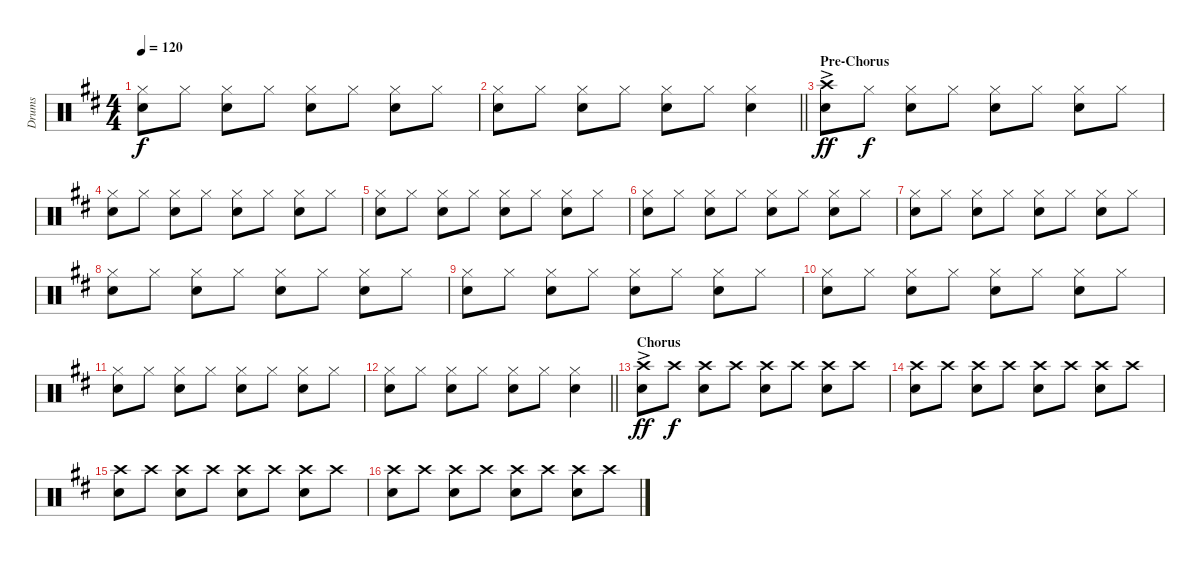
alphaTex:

\track ("Drums" "Drums") {instrument percussion}
\staff {score}
\articulation defaults
\ts (4 4)
\tempo 120
\clef neutral
\ks d
("Hi-Hat (closed)" "Snare (hit) 2").8{dy f} "Hi-Hat (closed)".8 ("Hi-Hat (closed)" "Snare (hit) 2").8 "Hi-Hat (closed)".8 ("Hi-Hat (closed)" "Snare (hit) 2").8 "Hi-Hat (closed)".8 ("Hi-Hat (closed)" "Snare (hit) 2").8 "Hi-Hat (closed)".8 |
\barLineRight lightlight
("Hi-Hat (closed)" "Snare (hit) 2").8 "Hi-Hat (closed)".8 ("Hi-Hat (closed)" "Snare (hit) 2").8 "Hi-Hat (closed)".8 ("Hi-Hat (closed)" "Snare (hit) 2").8 "Hi-Hat (closed)".8 ("Hi-Hat (closed)" "Snare (hit) 2").4 |
\section ("" "Pre-Chorus")
("Crash high (hit)"{ac} "Snare (hit) 2").8{dy ff} "Hi-Hat (closed)".8{dy f} ("Hi-Hat (closed)" "Snare (hit) 2").8 "Hi-Hat (closed)".8 ("Hi-Hat (closed)" "Snare (hit) 2").8 "Hi-Hat (closed)".8 ("Hi-Hat (closed)" "Snare (hit) 2").8 "Hi-Hat (closed)".8 |
("Hi-Hat (closed)" "Snare (hit) 2").8 "Hi-Hat (closed)".8 ("Hi-Hat (closed)" "Snare (hit) 2").8 "Hi-Hat (closed)".8 ("Hi-Hat (closed)" "Snare (hit) 2").8 "Hi-Hat (closed)".8 ("Hi-Hat (closed)" "Snare (hit) 2").8 "Hi-Hat (closed)".8 |
("Hi-Hat (closed)" "Snare (hit) 2").8 "Hi-Hat (closed)".8 ("Hi-Hat (closed)" "Snare (hit) 2").8 "Hi-Hat (closed)".8 ("Hi-Hat (closed)" "Snare (hit) 2").8 "Hi-Hat (closed)".8 ("Hi-Hat (closed)" "Snare (hit) 2").8 "Hi-Hat (closed)".8 |
("Hi-Hat (closed)" "Snare (hit) 2").8 "Hi-Hat (closed)".8 ("Hi-Hat (closed)" "Snare (hit) 2").8 "Hi-Hat (closed)".8 ("Hi-Hat (closed)" "Snare (hit) 2").8 "Hi-Hat (closed)".8 ("Hi-Hat (closed)" "Snare (hit) 2").8 "Hi-Hat (closed)".8 |
("Hi-Hat (closed)" "Snare (hit) 2").8 "Hi-Hat (closed)".8 ("Hi-Hat (closed)" "Snare (hit) 2").8 "Hi-Hat (closed)".8 ("Hi-Hat (closed)" "Snare (hit) 2").8 "Hi-Hat (closed)".8 ("Hi-Hat (closed)" "Snare (hit) 2").8 "Hi-Hat (closed)".8 |
("Hi-Hat (closed)" "Snare (hit) 2").8 "Hi-Hat (closed)".8 ("Hi-Hat (closed)" "Snare (hit) 2").8 "Hi-Hat (closed)".8 ("Hi-Hat (closed)" "Snare (hit) 2").8 "Hi-Hat (closed)".8 ("Hi-Hat (closed)" "Snare (hit) 2").8 "Hi-Hat (closed)".8 |
("Hi-Hat (closed)" "Snare (hit) 2").8 "Hi-Hat (closed)".8 ("Hi-Hat (closed)" "Snare (hit) 2").8 "Hi-Hat (closed)".8 ("Hi-Hat (closed)" "Snare (hit) 2").8 "Hi-Hat (closed)".8 ("Hi-Hat (closed)" "Snare (hit) 2").8 "Hi-Hat (closed)".8 |
("Hi-Hat (closed)" "Snare (hit) 2").8 "Hi-Hat (closed)".8 ("Hi-Hat (closed)" "Snare (hit) 2").8 "Hi-Hat (closed)".8 ("Hi-Hat (closed)" "Snare (hit) 2").8 "Hi-Hat (closed)".8 ("Hi-Hat (closed)" "Snare (hit) 2").8 "Hi-Hat (closed)".8 |
("Hi-Hat (closed)" "Snare (hit) 2").8 "Hi-Hat (closed)".8 ("Hi-Hat (closed)" "Snare (hit) 2").8 "Hi-Hat (closed)".8 ("Hi-Hat (closed)" "Snare (hit) 2").8 "Hi-Hat (closed)".8 ("Hi-Hat (closed)" "Snare (hit) 2").8 "Hi-Hat (closed)".8 |
\barLineRight lightlight
("Hi-Hat (closed)" "Snare (hit) 2").8 "Hi-Hat (closed)".8 ("Hi-Hat (closed)" "Snare (hit) 2").8 "Hi-Hat (closed)".8 ("Hi-Hat (closed)" "Snare (hit) 2").8 "Hi-Hat (closed)".8 ("Hi-Hat (closed)" "Snare (hit) 2").4 |
\section ("" "Chorus")
("Crash high (hit)"{ac} "Snare (hit) 2").8{dy ff} "Crash high (hit)".8{dy f} ("Crash high (hit)" "Snare (hit) 2").8 "Crash high (hit)".8 ("Crash high (hit)" "Snare (hit) 2").8 "Crash high (hit)".8 ("Crash high (hit)" "Snare (hit) 2").8 "Crash high (hit)".8 |
("Crash high (hit)" "Snare (hit) 2").8 "Crash high (hit)".8 ("Crash high (hit)" "Snare (hit) 2").8 "Crash high (hit)".8 ("Crash high (hit)" "Snare (hit) 2").8 "Crash high (hit)".8 ("Crash high (hit)" "Snare (hit) 2").8 "Crash high (hit)".8 |
("Crash high (hit)" "Snare (hit) 2").8 "Crash high (hit)".8 ("Crash high (hit)" "Snare (hit) 2").8 "Crash high (hit)".8 ("Crash high (hit)" "Snare (hit) 2").8 "Crash high (hit)".8 ("Crash high (hit)" "Snare (hit) 2").8 "Crash high (hit)".8 |
("Crash high (hit)" "Snare (hit) 2").8 "Crash high (hit)".8 ("Crash high (hit)" "Snare (hit) 2").8 "Crash high (hit)".8 ("Crash high (hit)" "Snare (hit) 2").8 "Crash high (hit)".8 ("Crash high (hit)" "Snare (hit) 2").8 "Crash high (hit)".8
